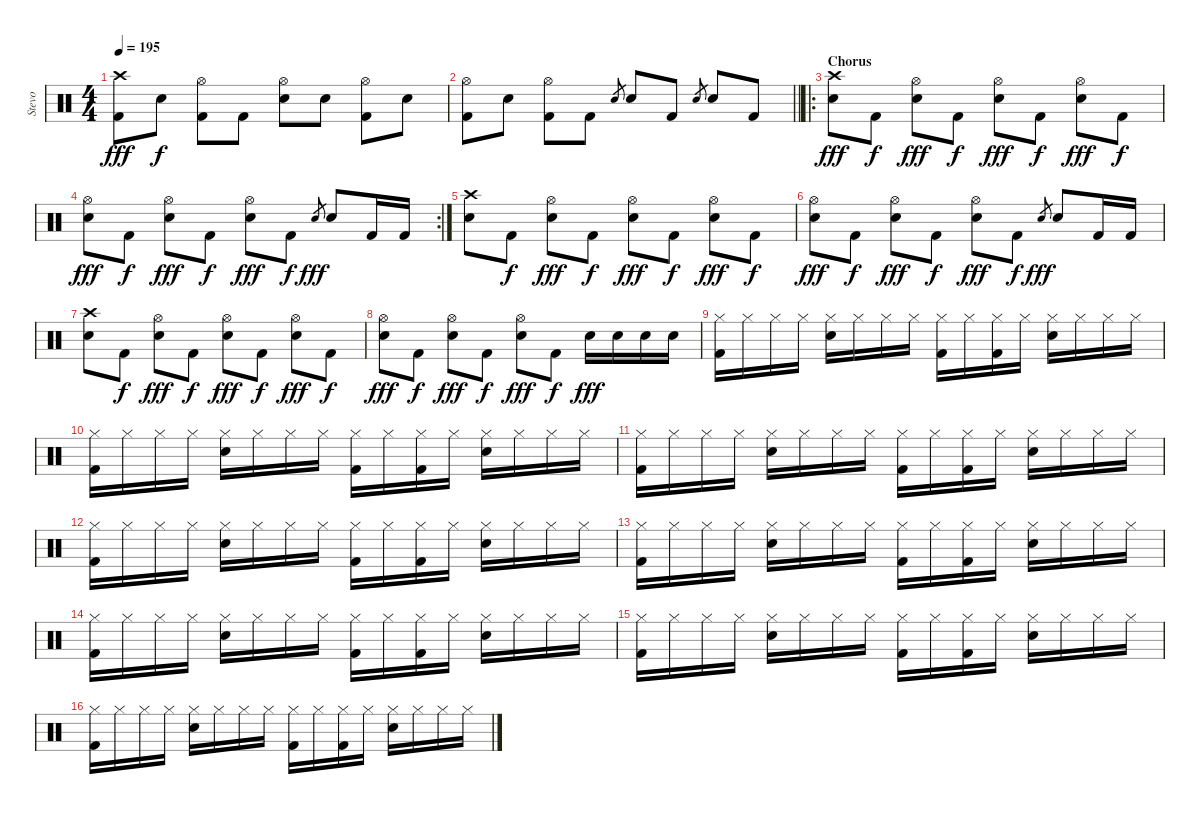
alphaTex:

\track ("Stevo" "Stevo") {instrument percussion}
\staff {score}
\articulation defaults
\ts (4 4)
\tempo 195
\clef neutral
\ks c
("Crash high (hit)" "Kick (hit) 2").8{dy fff} "Electric Snare (hit)".8{dy f} ("Hi-Hat (open)" "Kick (hit) 2").8 "Kick (hit) 2".8 ("Hi-Hat (open)" "Electric Snare (hit)").8 "Electric Snare (hit)".8 ("Hi-Hat (open)" "Kick (hit) 2").8 "Electric Snare (hit)".8 |
\barLineRight lightlight
("Hi-Hat (open)" "Kick (hit) 2").8 "Electric Snare (hit)".8 ("Hi-Hat (open)" "Kick (hit) 2").8 "Kick (hit) 2".8 "Electric Snare (hit)".8{gr} "Electric Snare (hit)".8 "Kick (hit) 2".8 "Electric Snare (hit)".8{gr} "Electric Snare (hit)".8 "Kick (hit) 2".8 |
\ro
\section ("" "Chorus")
("Crash high (hit)" "Electric Snare (hit)").8{dy fff} "Kick (hit) 2".8{dy f} ("Hi-Hat (open)" "Electric Snare (hit)").8{dy fff} "Kick (hit) 2".8{dy f} ("Hi-Hat (open)" "Electric Snare (hit)").8{dy fff} "Kick (hit) 2".8{dy f} ("Hi-Hat (open)" "Electric Snare (hit)").8{dy fff} "Kick (hit) 2".8{dy f} |
\rc 2
("Hi-Hat (open)" "Electric Snare (hit)").8{dy fff} "Kick (hit) 2".8{dy f} ("Hi-Hat (open)" "Electric Snare (hit)").8{dy fff} "Kick (hit) 2".8{dy f} ("Hi-Hat (open)" "Electric Snare (hit)").8{dy fff} "Kick (hit) 2".8{dy f} "Electric Snare (hit)".8{gr dy fff} "Electric Snare (hit)".8 "Kick (hit) 2".16 "Kick (hit) 2".16 |
("Crash high (hit)" "Electric Snare (hit)").8 "Kick (hit) 2".8{dy f} ("Hi-Hat (open)" "Electric Snare (hit)").8{dy fff} "Kick (hit) 2".8{dy f} ("Hi-Hat (open)" "Electric Snare (hit)").8{dy fff} "Kick (hit) 2".8{dy f} ("Hi-Hat (open)" "Electric Snare (hit)").8{dy fff} "Kick (hit) 2".8{dy f} |
("Hi-Hat (open)" "Electric Snare (hit)").8{dy fff} "Kick (hit) 2".8{dy f} ("Hi-Hat (open)" "Electric Snare (hit)").8{dy fff} "Kick (hit) 2".8{dy f} ("Hi-Hat (open)" "Electric Snare (hit)").8{dy fff} "Kick (hit) 2".8{dy f} "Electric Snare (hit)".8{gr dy fff} "Electric Snare (hit)".8 "Kick (hit) 2".16 "Kick (hit) 2".16 |
("Crash high (hit)" "Electric Snare (hit)").8 "Kick (hit) 2".8{dy f} ("Hi-Hat (open)" "Electric Snare (hit)").8{dy fff} "Kick (hit) 2".8{dy f} ("Hi-Hat (open)" "Electric Snare (hit)").8{dy fff} "Kick (hit) 2".8{dy f} ("Hi-Hat (open)" "Electric Snare (hit)").8{dy fff} "Kick (hit) 2".8{dy f} |
("Hi-Hat (open)" "Electric Snare (hit)").8{dy fff} "Kick (hit) 2".8{dy f} ("Hi-Hat (open)" "Electric Snare (hit)").8{dy fff} "Kick (hit) 2".8{dy f} ("Hi-Hat (open)" "Electric Snare (hit)").8{dy fff} "Kick (hit) 2".8{dy f} "Electric Snare (hit)".16{dy fff} "Electric Snare (hit)".16 "Electric Snare (hit)".16 "Electric Snare (hit)".16 |
("Hi-Hat (closed)" "Kick (hit) 2").16 "Hi-Hat (closed)".16 "Hi-Hat (closed)".16 "Hi-Hat (closed)".16 ("Hi-Hat (closed)" "Electric Snare (hit)").16 "Hi-Hat (closed)".16 "Hi-Hat (closed)".16 "Hi-Hat (closed)".16 ("Hi-Hat (closed)" "Kick (hit) 2").16 "Hi-Hat (closed)".16 ("Hi-Hat (closed)" "Kick (hit) 2").16 "Hi-Hat (closed)".16 ("Hi-Hat (closed)" "Electric Snare (hit)").16 "Hi-Hat (closed)".16 "Hi-Hat (closed)".16 "Hi-Hat (closed)".16 |
("Hi-Hat (closed)" "Kick (hit) 2").16 "Hi-Hat (closed)".16 "Hi-Hat (closed)".16 "Hi-Hat (closed)".16 ("Hi-Hat (closed)" "Electric Snare (hit)").16 "Hi-Hat (closed)".16 "Hi-Hat (closed)".16 "Hi-Hat (closed)".16 ("Hi-Hat (closed)" "Kick (hit) 2").16 "Hi-Hat (closed)".16 ("Hi-Hat (closed)" "Kick (hit) 2").16 "Hi-Hat (closed)".16 ("Hi-Hat (closed)" "Electric Snare (hit)").16 "Hi-Hat (closed)".16 "Hi-Hat (closed)".16 "Hi-Hat (closed)".16 |
("Hi-Hat (closed)" "Kick (hit) 2").16 "Hi-Hat (closed)".16 "Hi-Hat (closed)".16 "Hi-Hat (closed)".16 ("Hi-Hat (closed)" "Electric Snare (hit)").16 "Hi-Hat (closed)".16 "Hi-Hat (closed)".16 "Hi-Hat (closed)".16 ("Hi-Hat (closed)" "Kick (hit) 2").16 "Hi-Hat (closed)".16 ("Hi-Hat (closed)" "Kick (hit) 2").16 "Hi-Hat (closed)".16 ("Hi-Hat (closed)" "Electric Snare (hit)").16 "Hi-Hat (closed)".16 "Hi-Hat (closed)".16 "Hi-Hat (closed)".16 |
("Hi-Hat (closed)" "Kick (hit) 2").16 "Hi-Hat (closed)".16 "Hi-Hat (closed)".16 "Hi-Hat (closed)".16 ("Hi-Hat (closed)" "Electric Snare (hit)").16 "Hi-Hat (closed)".16 "Hi-Hat (closed)".16 "Hi-Hat (closed)".16 ("Hi-Hat (closed)" "Kick (hit) 2").16 "Hi-Hat (closed)".16 ("Hi-Hat (closed)" "Kick (hit) 2").16 "Hi-Hat (closed)".16 ("Hi-Hat (closed)" "Electric Snare (hit)").16 "Hi-Hat (closed)".16 "Hi-Hat (closed)".16 "Hi-Hat (closed)".16 |
("Hi-Hat (closed)" "Kick (hit) 2").16 "Hi-Hat (closed)".16 "Hi-Hat (closed)".16 "Hi-Hat (closed)".16 ("Hi-Hat (closed)" "Electric Snare (hit)").16 "Hi-Hat (closed)".16 "Hi-Hat (closed)".16 "Hi-Hat (closed)".16 ("Hi-Hat (closed)" "Kick (hit) 2").16 "Hi-Hat (closed)".16 ("Hi-Hat (closed)" "Kick (hit) 2").16 "Hi-Hat (closed)".16 ("Hi-Hat (closed)" "Electric Snare (hit)").16 "Hi-Hat (closed)".16 "Hi-Hat (closed)".16 "Hi-Hat (closed)".16 |
("Hi-Hat (closed)" "Kick (hit) 2").16 "Hi-Hat (closed)".16 "Hi-Hat (closed)".16 "Hi-Hat (closed)".16 ("Hi-Hat (closed)" "Electric Snare (hit)").16 "Hi-Hat (closed)".16 "Hi-Hat (closed)".16 "Hi-Hat (closed)".16 ("Hi-Hat (closed)" "Kick (hit) 2").16 "Hi-Hat (closed)".16 ("Hi-Hat (closed)" "Kick (hit) 2").16 "Hi-Hat (closed)".16 ("Hi-Hat (closed)" "Electric Snare (hit)").16 "Hi-Hat (closed)".16 "Hi-Hat (closed)".16 "Hi-Hat (closed)".16 |
("Hi-Hat (closed)" "Kick (hit) 2").16 "Hi-Hat (closed)".16 "Hi-Hat (closed)".16 "Hi-Hat (closed)".16 ("Hi-Hat (closed)" "Electric Snare (hit)").16 "Hi-Hat (closed)".16 "Hi-Hat (closed)".16 "Hi-Hat (closed)".16 ("Hi-Hat (closed)" "Kick (hit) 2").16 "Hi-Hat (closed)".16 ("Hi-Hat (closed)" "Kick (hit) 2").16 "Hi-Hat (closed)".16 ("Hi-Hat (closed)" "Electric Snare (hit)").16 "Hi-Hat (closed)".16 "Hi-Hat (closed)".16 "Hi-Hat (closed)".16 |
("Hi-Hat (closed)" "Kick (hit) 2").16 "Hi-Hat (closed)".16 "Hi-Hat (closed)".16 "Hi-Hat (closed)".16 ("Hi-Hat (closed)" "Electric Snare (hit)").16 "Hi-Hat (closed)".16 "Hi-Hat (closed)".16 "Hi-Hat (closed)".16 ("Hi-Hat (closed)" "Kick (hit) 2").16 "Hi-Hat (closed)".16 ("Hi-Hat (closed)" "Kick (hit) 2").16 "Hi-Hat (closed)".16 ("Hi-Hat (closed)" "Electric Snare (hit)").16 "Hi-Hat (closed)".16 "Hi-Hat (closed)".16 "Hi-Hat (closed)".16
